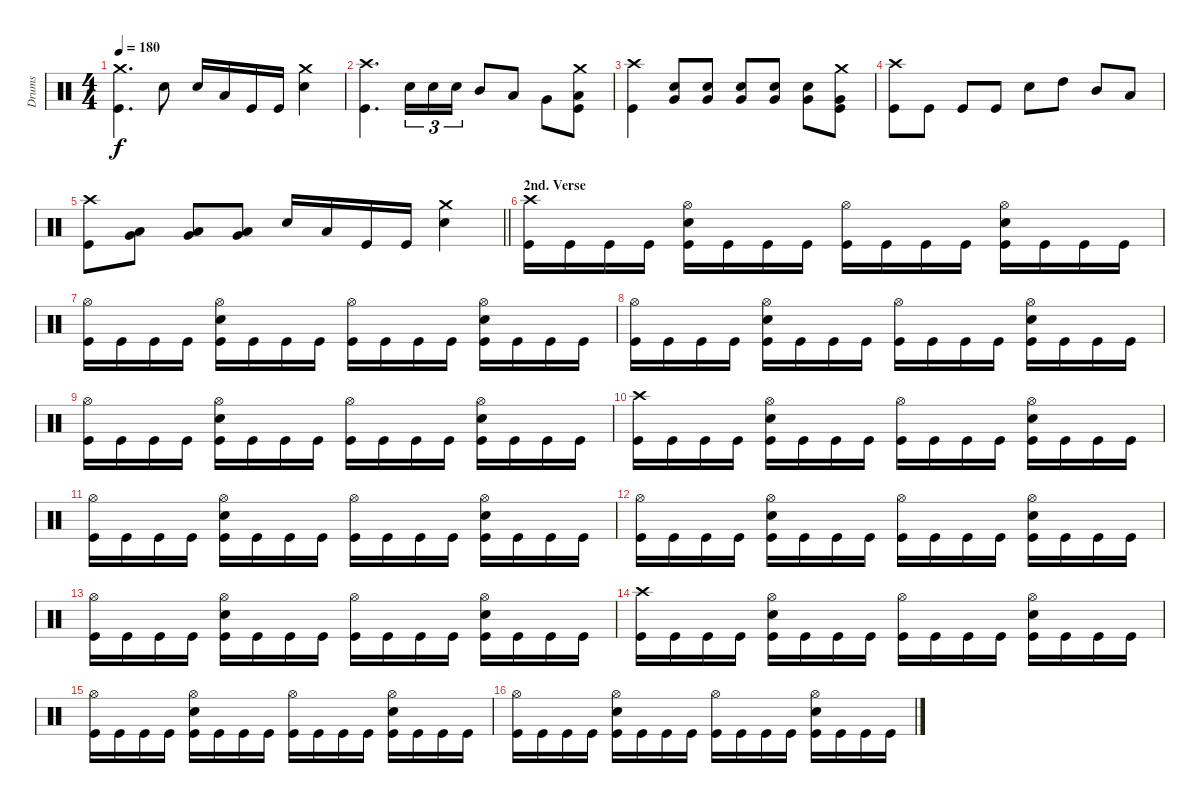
\track ("Drums" "Drums") {instrument percussion}
\staff {score}
\articulation defaults
\ts (4 4)
\tempo 180
\clef neutral
\ks c
("Crash medium (hit)" "Kick (hit)").4{d dy f} "Electric Snare (hit)".8 "Electric Snare (hit)".16 "Low Tom (hit)".16 "Kick (hit)".16 "Kick (hit)".16 ("Crash medium (hit)" "Electric Snare (hit)").4 |
("Crash high (hit)" "Kick (hit)").4{d} "Electric Snare (hit)".16{tu (3 2)} "Electric Snare (hit)".16{tu (3 2)} "Electric Snare (hit)".16{tu (3 2)} "Mid Tom (hit)".8 "Low Tom (hit)".8 "Very Low Tom (hit)".8 ("Crash medium (hit)" "Low Floor Tom (hit)" "Kick (hit)").8 |
("Crash high (hit)" "Kick (hit)").4 ("Very Low Tom (hit)" "Electric Snare (hit)").8 ("Very Low Tom (hit)" "Electric Snare (hit)").8 ("Very Low Tom (hit)" "Electric Snare (hit)").8 ("Very Low Tom (hit)" "Electric Snare (hit)").8 ("Very Low Tom (hit)" "Electric Snare (hit)").8 ("Crash medium (hit)" "Very Low Tom (hit)" "Kick (hit)").8 |
("Crash high (hit)" "Kick (hit)").8 "Kick (hit)".8 "Kick (hit)".8 "Kick (hit)".8 "Electric Snare (hit)".8 "High Tom (hit)".8 "Mid Tom (hit)".8 "Low Tom (hit)".8 |
\barLineRight lightlight
("Crash high (hit)" "Kick (hit)").8 ("Very Low Tom (hit)" "Low Tom (hit)").8 ("Very Low Tom (hit)" "Low Tom (hit)").8 ("Very Low Tom (hit)" "Low Tom (hit)").8 "Electric Snare (hit)".16 "Low Tom (hit)".16 "Kick (hit)".16 "Kick (hit)".16 ("Crash medium (hit)" "Electric Snare (hit)").4 |
\section ("" "2nd. Verse")
("Crash high (hit)" "Kick (hit)").16 "Kick (hit)".16 "Kick (hit)".16 "Kick (hit)".16 ("Hi-Hat (open)" "Electric Snare (hit)" "Kick (hit)").16 "Kick (hit)".16 "Kick (hit)".16 "Kick (hit)".16 ("Hi-Hat (open)" "Kick (hit)").16 "Kick (hit)".16 "Kick (hit)".16 "Kick (hit)".16 ("Hi-Hat (open)" "Electric Snare (hit)" "Kick (hit)").16 "Kick (hit)".16 "Kick (hit)".16 "Kick (hit)".16 |
("Hi-Hat (open)" "Kick (hit)").16 "Kick (hit)".16 "Kick (hit)".16 "Kick (hit)".16 ("Hi-Hat (open)" "Electric Snare (hit)" "Kick (hit)").16 "Kick (hit)".16 "Kick (hit)".16 "Kick (hit)".16 ("Hi-Hat (open)" "Kick (hit)").16 "Kick (hit)".16 "Kick (hit)".16 "Kick (hit)".16 ("Hi-Hat (open)" "Electric Snare (hit)" "Kick (hit)").16 "Kick (hit)".16 "Kick (hit)".16 "Kick (hit)".16 |
("Hi-Hat (open)" "Kick (hit)").16 "Kick (hit)".16 "Kick (hit)".16 "Kick (hit)".16 ("Hi-Hat (open)" "Electric Snare (hit)" "Kick (hit)").16 "Kick (hit)".16 "Kick (hit)".16 "Kick (hit)".16 ("Hi-Hat (open)" "Kick (hit)").16 "Kick (hit)".16 "Kick (hit)".16 "Kick (hit)".16 ("Hi-Hat (open)" "Electric Snare (hit)" "Kick (hit)").16 "Kick (hit)".16 "Kick (hit)".16 "Kick (hit)".16 |
("Hi-Hat (open)" "Kick (hit)").16 "Kick (hit)".16 "Kick (hit)".16 "Kick (hit)".16 ("Hi-Hat (open)" "Electric Snare (hit)" "Kick (hit)").16 "Kick (hit)".16 "Kick (hit)".16 "Kick (hit)".16 ("Hi-Hat (open)" "Kick (hit)").16 "Kick (hit)".16 "Kick (hit)".16 "Kick (hit)".16 ("Hi-Hat (open)" "Electric Snare (hit)" "Kick (hit)").16 "Kick (hit)".16 "Kick (hit)".16 "Kick (hit)".16 |
("Crash high (hit)" "Kick (hit)").16 "Kick (hit)".16 "Kick (hit)".16 "Kick (hit)".16 ("Hi-Hat (open)" "Electric Snare (hit)" "Kick (hit)").16 "Kick (hit)".16 "Kick (hit)".16 "Kick (hit)".16 ("Hi-Hat (open)" "Kick (hit)").16 "Kick (hit)".16 "Kick (hit)".16 "Kick (hit)".16 ("Hi-Hat (open)" "Electric Snare (hit)" "Kick (hit)").16 "Kick (hit)".16 "Kick (hit)".16 "Kick (hit)".16 |
("Hi-Hat (open)" "Kick (hit)").16 "Kick (hit)".16 "Kick (hit)".16 "Kick (hit)".16 ("Hi-Hat (open)" "Electric Snare (hit)" "Kick (hit)").16 "Kick (hit)".16 "Kick (hit)".16 "Kick (hit)".16 ("Hi-Hat (open)" "Kick (hit)").16 "Kick (hit)".16 "Kick (hit)".16 "Kick (hit)".16 ("Hi-Hat (open)" "Electric Snare (hit)" "Kick (hit)").16 "Kick (hit)".16 "Kick (hit)".16 "Kick (hit)".16 |
("Hi-Hat (open)" "Kick (hit)").16 "Kick (hit)".16 "Kick (hit)".16 "Kick (hit)".16 ("Hi-Hat (open)" "Electric Snare (hit)" "Kick (hit)").16 "Kick (hit)".16 "Kick (hit)".16 "Kick (hit)".16 ("Hi-Hat (open)" "Kick (hit)").16 "Kick (hit)".16 "Kick (hit)".16 "Kick (hit)".16 ("Hi-Hat (open)" "Electric Snare (hit)" "Kick (hit)").16 "Kick (hit)".16 "Kick (hit)".16 "Kick (hit)".16 |
("Hi-Hat (open)" "Kick (hit)").16 "Kick (hit)".16 "Kick (hit)".16 "Kick (hit)".16 ("Hi-Hat (open)" "Electric Snare (hit)" "Kick (hit)").16 "Kick (hit)".16 "Kick (hit)".16 "Kick (hit)".16 ("Hi-Hat (open)" "Kick (hit)").16 "Kick (hit)".16 "Kick (hit)".16 "Kick (hit)".16 ("Hi-Hat (open)" "Electric Snare (hit)" "Kick (hit)").16 "Kick (hit)".16 "Kick (hit)".16 "Kick (hit)".16 |
("Crash high (hit)" "Kick (hit)").16 "Kick (hit)".16 "Kick (hit)".16 "Kick (hit)".16 ("Hi-Hat (open)" "Electric Snare (hit)" "Kick (hit)").16 "Kick (hit)".16 "Kick (hit)".16 "Kick (hit)".16 ("Hi-Hat (open)" "Kick (hit)").16 "Kick (hit)".16 "Kick (hit)".16 "Kick (hit)".16 ("Hi-Hat (open)" "Electric Snare (hit)" "Kick (hit)").16 "Kick (hit)".16 "Kick (hit)".16 "Kick (hit)".16 |
("Hi-Hat (open)" "Kick (hit)").16 "Kick (hit)".16 "Kick (hit)".16 "Kick (hit)".16 ("Hi-Hat (open)" "Electric Snare (hit)" "Kick (hit)").16 "Kick (hit)".16 "Kick (hit)".16 "Kick (hit)".16 ("Hi-Hat (open)" "Kick (hit)").16 "Kick (hit)".16 "Kick (hit)".16 "Kick (hit)".16 ("Hi-Hat (open)" "Electric Snare (hit)" "Kick (hit)").16 "Kick (hit)".16 "Kick (hit)".16 "Kick (hit)".16 |
("Hi-Hat (open)" "Kick (hit)").16 "Kick (hit)".16 "Kick (hit)".16 "Kick (hit)".16 ("Hi-Hat (open)" "Electric Snare (hit)" "Kick (hit)").16 "Kick (hit)".16 "Kick (hit)".16 "Kick (hit)".16 ("Hi-Hat (open)" "Kick (hit)").16 "Kick (hit)".16 "Kick (hit)".16 "Kick (hit)".16 ("Hi-Hat (open)" "Electric Snare (hit)" "Kick (hit)").16 "Kick (hit)".16 "Kick (hit)".16 "Kick (hit)".16
